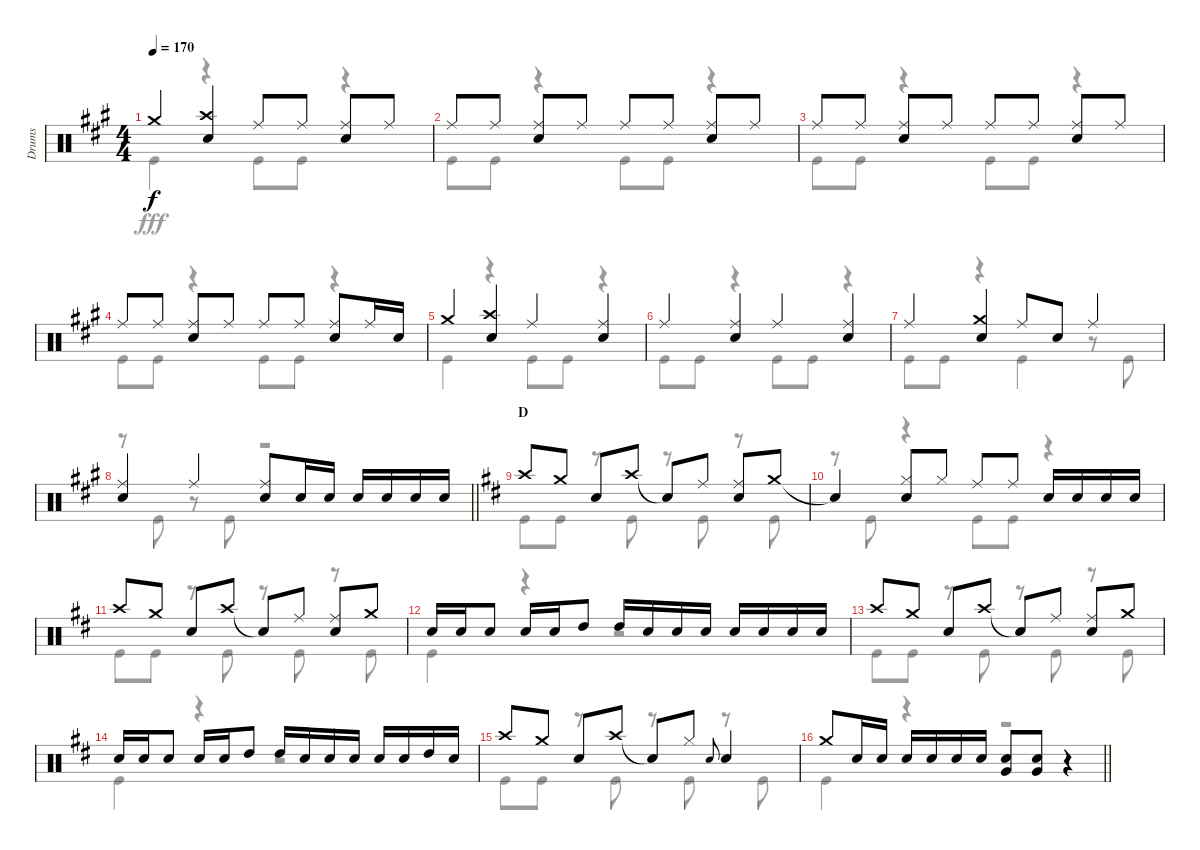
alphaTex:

\track ("Drums" "Drums") {instrument percussion}
\staff {score}
\articulation defaults
\voice
\ts (4 4)
\tempo 170
\clef neutral
\ks a "Crash medium (hit)".4{dy f}
("Crash high (hit)" "Snare (hit) 2").4 "Ride (middle)".8 "Ride (middle)".8 ("Ride (middle)" "Snare (hit) 2").8 "Ride (middle)".8 |
"Ride (middle)".8 "Ride (middle)".8 ("Ride (middle)" "Snare (hit) 2").8 "Ride (middle)".8 "Ride (middle)".8 "Ride (middle)".8 ("Ride (middle)" "Snare (hit) 2").8 "Ride (middle)".8 |
"Ride (middle)".8 "Ride (middle)".8 ("Ride (middle)" "Snare (hit) 2").8 "Ride (middle)".8 "Ride (middle)".8 "Ride (middle)".8 ("Ride (middle)" "Snare (hit) 2").8 "Ride (middle)".8 |
"Ride (middle)".8 "Ride (middle)".8 ("Ride (middle)" "Snare (hit) 2").8 "Ride (middle)".8 "Ride (middle)".8 "Ride (middle)".8 ("Ride (middle)" "Snare (hit) 2").8 "Ride (middle)".16 "Snare (hit) 2".16 |
"Crash medium (hit)".4 ("Crash high (hit)" "Snare (hit) 2").4 "Ride (middle)".4 ("Ride (middle)" "Snare (hit) 2").4 |
"Ride (middle)".4 ("Ride (middle)" "Snare (hit) 2").4 "Ride (middle)".4 ("Ride (middle)" "Snare (hit) 2").4 |
"Ride (middle)".4 ("Crash medium (hit)" "Snare (hit) 2").4 "Ride (middle)".8 "Snare (hit) 2".8 "Ride (middle)".4 |
\barLineRight lightlight
("Ride (middle)" "Snare (hit) 2").4 "Ride (middle)".4 ("Ride (middle)" "Snare (hit) 2").8 "Snare (hit) 2".16 "Snare (hit) 2".16 "Snare (hit) 2".16 "Snare (hit) 2".16 "Snare (hit) 2".16 "Snare (hit) 2".16 |
\section ("" "D")
\ks d "Crash high (hit)".8 "Crash medium (hit)".8 "Snare (hit) 2".8 "Crash high (hit)".8 "Snare (hit)"{t}.8 "Ride (middle)".8
("Ride (middle)" "Snare (hit) 2").8 "Crash medium (hit)".8 |
"Snare (hit)"{t}.4 ("Hi-Hat (closed)" "Snare (hit) 2").8 "Hi-Hat (closed)".8 "Ride (middle)".8 "Ride (middle)".8 "Snare (hit) 2".16 "Snare (hit) 2".16 "Snare (hit) 2".16 "Snare (hit) 2".16 |
"Crash high (hit)".8 "Crash medium (hit)".8 "Snare (hit) 2".8 "Crash high (hit)".8 "Snare (hit)"{t}.8 "Ride (middle)".8 ("Ride (middle)" "Snare (hit) 2").8 "Crash medium (hit)".8 |
"Snare (hit) 2".16 "Snare (hit) 2".16 "Snare (hit) 2".8 "Snare (hit) 2".16 "Snare (hit) 2".16 "High Tom (hit)".8 "High Tom (hit)".16 "Snare (hit) 2".16 "Snare (hit) 2".16 "Snare (hit) 2".16 "Snare (hit) 2".16 "Snare (hit) 2".16 "Snare (hit) 2".16 "Snare (hit) 2".16 |
"Crash high (hit)".8 "Crash medium (hit)".8 "Snare (hit) 2".8 "Crash high (hit)".8 "Snare (hit)"{t}.8 "Ride (middle)".8 ("Ride (middle)" "Snare (hit) 2").8 "Crash medium (hit)".8 |
"Snare (hit) 2".16 "Snare (hit) 2".16 "Snare (hit) 2".8 "Snare (hit) 2".16 "Snare (hit) 2".16 "High Tom (hit)".8 "High Tom (hit)".16 "Snare (hit) 2".16 "Snare (hit) 2".16 "Snare (hit) 2".16 "Snare (hit) 2".16 "Snare (hit) 2".16 "High Tom (hit)".16 "Snare (hit) 2".16 |
"Crash high (hit)".8 "Crash medium (hit)".8 "Snare (hit) 2".8 "Crash high (hit)".8 "Snare (hit)"{t}.8 "Hi-Hat (closed)".8 "Snare (hit) 2".8{gr onbeat} "Snare (hit) 2".4 |
\barLineRight lightlight "Crash medium (hit)".8 "Snare (hit) 2".16 "Snare (hit) 2".16 "Snare (hit) 2".16 "Snare (hit) 2".16 "Snare (hit) 2".16 "Snare (hit) 2".16
("Snare (hit) 2" "Very Low Tom (hit)").8 ("Snare (hit) 2" "Very Low Tom (hit)").8 r.4
\voice
\clef neutral
\ottava regular
\simile none
\ks a "Kick (hit)".4{dy fff}
r.4 "Kick (hit)".8 "Kick (hit)".8 r.4 |
"Kick (hit)".8 "Kick (hit)".8 r.4 "Kick (hit)".8 "Kick (hit)".8 r.4 |
"Kick (hit)".8 "Kick (hit)".8 r.4 "Kick (hit)".8 "Kick (hit)".8 r.4 |
"Kick (hit)".8 "Kick (hit)".8 r.4 "Kick (hit)".8 "Kick (hit)".8 r.4 |
"Kick (hit)".4 r.4 "Kick (hit)".8 "Kick (hit)".8 r.4 |
"Kick (hit)".8 "Kick (hit)".8 r.4 "Kick (hit)".8 "Kick (hit)".8 r.4 |
"Kick (hit)".8 "Kick (hit)".8 r.4 "Kick (hit)".4 r.8 "Kick (hit)".8 |
\barLineRight lightlight
r.8 "Kick (hit)".8 r.8 "Kick (hit)".8 r.2 |
\ks d "Kick (hit)".8 "Kick (hit)".8
r.8 "Kick (hit)".8 r.8 "Kick (hit)".8 r.8 "Kick (hit)".8 |
r.8 "Kick (hit)".8 r.4 "Kick (hit)".8 "Kick (hit)".8 r.4 |
"Kick (hit)".8 "Kick (hit)".8 r.8 "Kick (hit)".8 r.8 "Kick (hit)".8 r.8 "Kick (hit)".8 |
"Kick (hit)".4 r.4 r.2 |
"Kick (hit)".8 "Kick (hit)".8 r.8 "Kick (hit)".8 r.8 "Kick (hit)".8 r.8 "Kick (hit)".8 |
"Kick (hit)".4 r.4 r.2 |
"Kick (hit)".8 "Kick (hit)".8 r.8 "Kick (hit)".8 r.8 "Kick (hit)".8 r.8 "Kick (hit)".8 |
\barLineRight lightlight "Kick (hit)".4
r.4 r.2
